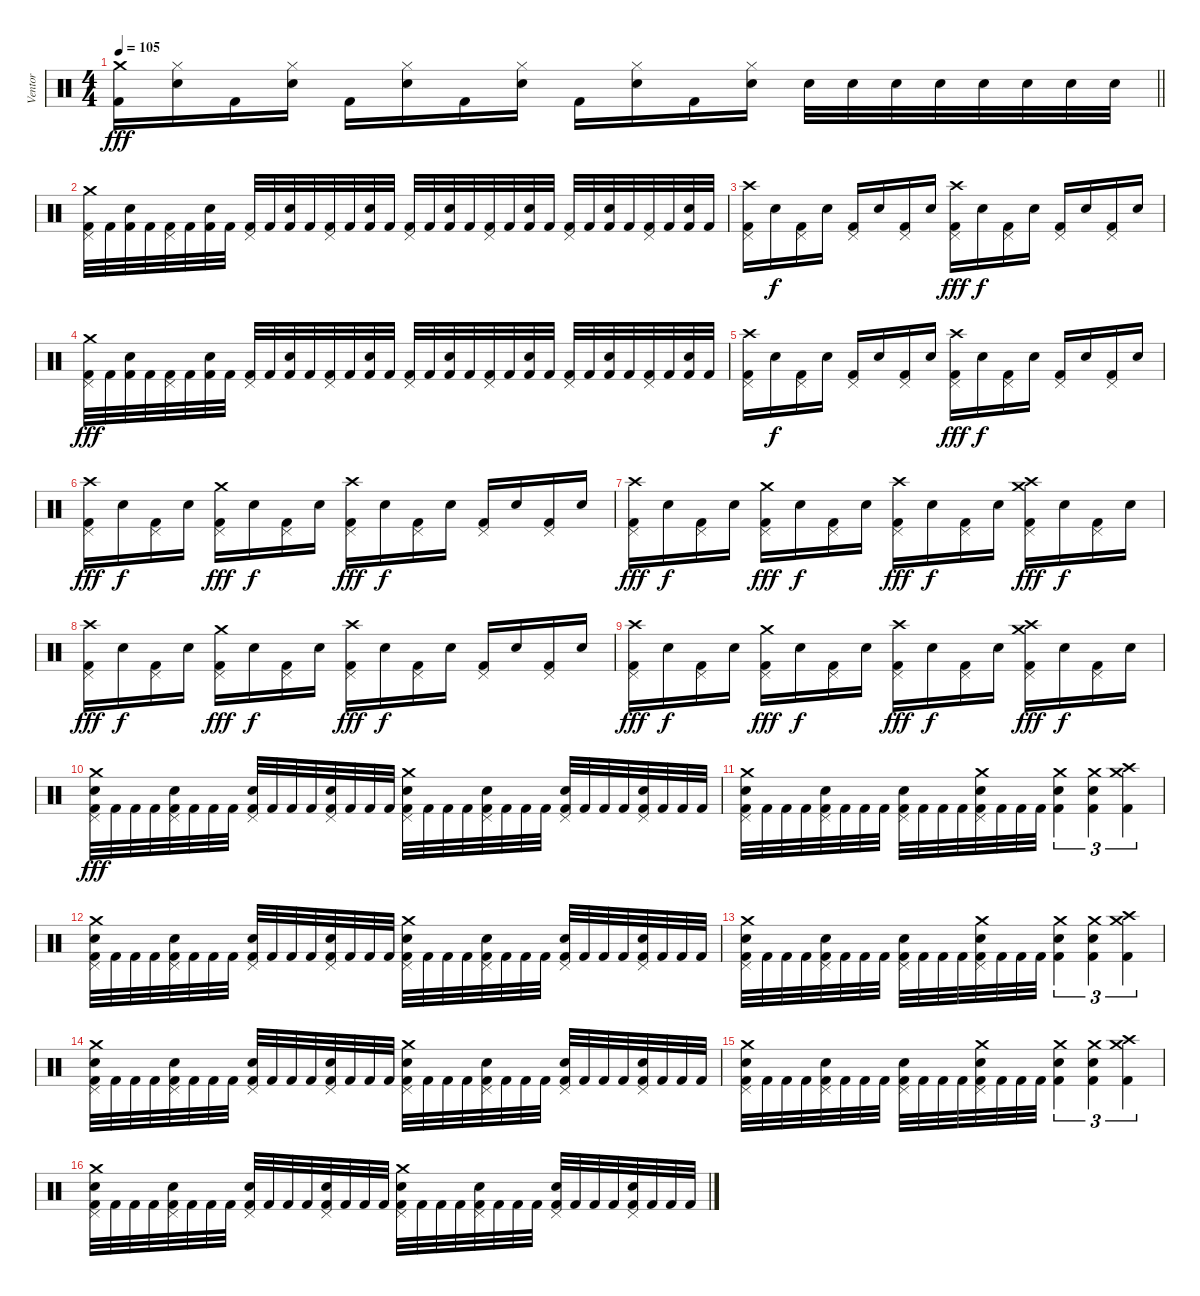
\track ("Ventor" "Ventor") {instrument percussion}
\staff {score}
\articulation defaults
\ts (4 4)
\tempo 105
\clef neutral
\barLineRight lightlight
\ks c
("Crash medium (hit)" "Kick (hit) 2").16{dy fff} ("Hi-Hat (closed)" "Electric Snare (hit)").16 "Kick (hit) 2".16 ("Hi-Hat (closed)" "Electric Snare (hit)").16 "Kick (hit) 2".16 ("Hi-Hat (closed)" "Electric Snare (hit)").16 "Kick (hit) 2".16 ("Hi-Hat (closed)" "Electric Snare (hit)").16 "Kick (hit) 2".16 ("Hi-Hat (closed)" "Electric Snare (hit)").16 "Kick (hit) 2".16 ("Hi-Hat (closed)" "Electric Snare (hit)").16 "Electric Snare (hit)".32 "Electric Snare (hit)".32 "Electric Snare (hit)".32 "Electric Snare (hit)".32 "Electric Snare (hit)".32 "Electric Snare (hit)".32 "Electric Snare (hit)".32 "Electric Snare (hit)".32 |
("Crash medium (hit)" "Pedal Hi-Hat (hit)" "Kick (hit) 2").32 "Kick (hit) 2".32 ("Electric Snare (hit)" "Kick (hit) 2").32 "Kick (hit) 2".32 ("Pedal Hi-Hat (hit)" "Kick (hit) 2").32 "Kick (hit) 2".32 ("Electric Snare (hit)" "Kick (hit) 2").32 "Kick (hit) 2".32 ("Pedal Hi-Hat (hit)" "Kick (hit) 2").32 "Kick (hit) 2".32 ("Electric Snare (hit)" "Kick (hit) 2").32 "Kick (hit) 2".32 ("Pedal Hi-Hat (hit)" "Kick (hit) 2").32 "Kick (hit) 2".32 ("Electric Snare (hit)" "Kick (hit) 2").32 "Kick (hit) 2".32 ("Pedal Hi-Hat (hit)" "Kick (hit) 2").32 "Kick (hit) 2".32 ("Electric Snare (hit)" "Kick (hit) 2").32 "Kick (hit) 2".32 ("Pedal Hi-Hat (hit)" "Kick (hit) 2").32 "Kick (hit) 2".32 ("Electric Snare (hit)" "Kick (hit) 2").32 "Kick (hit) 2".32 ("Pedal Hi-Hat (hit)" "Kick (hit) 2").32 "Kick (hit) 2".32 ("Electric Snare (hit)" "Kick (hit) 2").32 "Kick (hit) 2".32 ("Pedal Hi-Hat (hit)" "Kick (hit) 2").32 "Kick (hit) 2".32 ("Electric Snare (hit)" "Kick (hit) 2").32 "Kick (hit) 2".32 |
("Crash high (hit)" "Pedal Hi-Hat (hit)" "Kick (hit) 2").16 "Electric Snare (hit)".16{dy f} ("Pedal Hi-Hat (hit)" "Kick (hit) 2").16 "Electric Snare (hit)".16 ("Pedal Hi-Hat (hit)" "Kick (hit) 2").16 "Electric Snare (hit)".16 ("Pedal Hi-Hat (hit)" "Kick (hit) 2").16 "Electric Snare (hit)".16 ("Crash high (hit)" "Pedal Hi-Hat (hit)" "Kick (hit) 2").16{dy fff} "Electric Snare (hit)".16{dy f} ("Pedal Hi-Hat (hit)" "Kick (hit) 2").16 "Electric Snare (hit)".16 ("Pedal Hi-Hat (hit)" "Kick (hit) 2").16 "Electric Snare (hit)".16 ("Pedal Hi-Hat (hit)" "Kick (hit) 2").16 "Electric Snare (hit)".16 |
("Crash medium (hit)" "Pedal Hi-Hat (hit)" "Kick (hit) 2").32{dy fff} "Kick (hit) 2".32 ("Electric Snare (hit)" "Kick (hit) 2").32 "Kick (hit) 2".32 ("Pedal Hi-Hat (hit)" "Kick (hit) 2").32 "Kick (hit) 2".32 ("Electric Snare (hit)" "Kick (hit) 2").32 "Kick (hit) 2".32 ("Pedal Hi-Hat (hit)" "Kick (hit) 2").32 "Kick (hit) 2".32 ("Electric Snare (hit)" "Kick (hit) 2").32 "Kick (hit) 2".32 ("Pedal Hi-Hat (hit)" "Kick (hit) 2").32 "Kick (hit) 2".32 ("Electric Snare (hit)" "Kick (hit) 2").32 "Kick (hit) 2".32 ("Pedal Hi-Hat (hit)" "Kick (hit) 2").32 "Kick (hit) 2".32 ("Electric Snare (hit)" "Kick (hit) 2").32 "Kick (hit) 2".32 ("Pedal Hi-Hat (hit)" "Kick (hit) 2").32 "Kick (hit) 2".32 ("Electric Snare (hit)" "Kick (hit) 2").32 "Kick (hit) 2".32 ("Pedal Hi-Hat (hit)" "Kick (hit) 2").32 "Kick (hit) 2".32 ("Electric Snare (hit)" "Kick (hit) 2").32 "Kick (hit) 2".32 ("Pedal Hi-Hat (hit)" "Kick (hit) 2").32 "Kick (hit) 2".32 ("Electric Snare (hit)" "Kick (hit) 2").32 "Kick (hit) 2".32 |
("Crash high (hit)" "Pedal Hi-Hat (hit)" "Kick (hit) 2").16 "Electric Snare (hit)".16{dy f} ("Pedal Hi-Hat (hit)" "Kick (hit) 2").16 "Electric Snare (hit)".16 ("Pedal Hi-Hat (hit)" "Kick (hit) 2").16 "Electric Snare (hit)".16 ("Pedal Hi-Hat (hit)" "Kick (hit) 2").16 "Electric Snare (hit)".16 ("Crash high (hit)" "Pedal Hi-Hat (hit)" "Kick (hit) 2").16{dy fff} "Electric Snare (hit)".16{dy f} ("Pedal Hi-Hat (hit)" "Kick (hit) 2").16 "Electric Snare (hit)".16 ("Pedal Hi-Hat (hit)" "Kick (hit) 2").16 "Electric Snare (hit)".16 ("Pedal Hi-Hat (hit)" "Kick (hit) 2").16 "Electric Snare (hit)".16 |
("Crash high (hit)" "Pedal Hi-Hat (hit)" "Kick (hit) 2").16{dy fff} "Electric Snare (hit)".16{dy f} ("Pedal Hi-Hat (hit)" "Kick (hit) 2").16 "Electric Snare (hit)".16 ("Crash medium (hit)" "Pedal Hi-Hat (hit)" "Kick (hit) 2").16{dy fff} "Electric Snare (hit)".16{dy f} ("Pedal Hi-Hat (hit)" "Kick (hit) 2").16 "Electric Snare (hit)".16 ("Crash high (hit)" "Pedal Hi-Hat (hit)" "Kick (hit) 2").16{dy fff} "Electric Snare (hit)".16{dy f} ("Pedal Hi-Hat (hit)" "Kick (hit) 2").16 "Electric Snare (hit)".16 ("Pedal Hi-Hat (hit)" "Kick (hit) 2").16 "Electric Snare (hit)".16 ("Pedal Hi-Hat (hit)" "Kick (hit) 2").16 "Electric Snare (hit)".16 |
("Crash high (hit)" "Pedal Hi-Hat (hit)" "Kick (hit) 2").16{dy fff} "Electric Snare (hit)".16{dy f} ("Pedal Hi-Hat (hit)" "Kick (hit) 2").16 "Electric Snare (hit)".16 ("Crash medium (hit)" "Pedal Hi-Hat (hit)" "Kick (hit) 2").16{dy fff} "Electric Snare (hit)".16{dy f} ("Pedal Hi-Hat (hit)" "Kick (hit) 2").16 "Electric Snare (hit)".16 ("Crash high (hit)" "Pedal Hi-Hat (hit)" "Kick (hit) 2").16{dy fff} "Electric Snare (hit)".16{dy f} ("Pedal Hi-Hat (hit)" "Kick (hit) 2").16 "Electric Snare (hit)".16 ("Crash medium (hit)" "Crash high (hit)" "Pedal Hi-Hat (hit)" "Kick (hit) 2").16{dy fff} "Electric Snare (hit)".16{dy f} ("Pedal Hi-Hat (hit)" "Kick (hit) 2").16 "Electric Snare (hit)".16 |
("Crash high (hit)" "Pedal Hi-Hat (hit)" "Kick (hit) 2").16{dy fff} "Electric Snare (hit)".16{dy f} ("Pedal Hi-Hat (hit)" "Kick (hit) 2").16 "Electric Snare (hit)".16 ("Crash medium (hit)" "Pedal Hi-Hat (hit)" "Kick (hit) 2").16{dy fff} "Electric Snare (hit)".16{dy f} ("Pedal Hi-Hat (hit)" "Kick (hit) 2").16 "Electric Snare (hit)".16 ("Crash high (hit)" "Pedal Hi-Hat (hit)" "Kick (hit) 2").16{dy fff} "Electric Snare (hit)".16{dy f} ("Pedal Hi-Hat (hit)" "Kick (hit) 2").16 "Electric Snare (hit)".16 ("Pedal Hi-Hat (hit)" "Kick (hit) 2").16 "Electric Snare (hit)".16 ("Pedal Hi-Hat (hit)" "Kick (hit) 2").16 "Electric Snare (hit)".16 |
("Crash high (hit)" "Pedal Hi-Hat (hit)" "Kick (hit) 2").16{dy fff} "Electric Snare (hit)".16{dy f} ("Pedal Hi-Hat (hit)" "Kick (hit) 2").16 "Electric Snare (hit)".16 ("Crash medium (hit)" "Pedal Hi-Hat (hit)" "Kick (hit) 2").16{dy fff} "Electric Snare (hit)".16{dy f} ("Pedal Hi-Hat (hit)" "Kick (hit) 2").16 "Electric Snare (hit)".16 ("Crash high (hit)" "Pedal Hi-Hat (hit)" "Kick (hit) 2").16{dy fff} "Electric Snare (hit)".16{dy f} ("Pedal Hi-Hat (hit)" "Kick (hit) 2").16 "Electric Snare (hit)".16 ("Crash medium (hit)" "Crash high (hit)" "Pedal Hi-Hat (hit)" "Kick (hit) 2").16{dy fff} "Electric Snare (hit)".16{dy f} ("Pedal Hi-Hat (hit)" "Kick (hit) 2").16 "Electric Snare (hit)".16 |
("Crash medium (hit)" "Pedal Hi-Hat (hit)" "Electric Snare (hit)" "Kick (hit) 2").32{dy fff} "Kick (hit) 2".32 "Kick (hit) 2".32 "Kick (hit) 2".32 ("Pedal Hi-Hat (hit)" "Electric Snare (hit)" "Kick (hit) 2").32 "Kick (hit) 2".32 "Kick (hit) 2".32 "Kick (hit) 2".32 ("Pedal Hi-Hat (hit)" "Electric Snare (hit)" "Kick (hit) 2").32 "Kick (hit) 2".32 "Kick (hit) 2".32 "Kick (hit) 2".32 ("Pedal Hi-Hat (hit)" "Electric Snare (hit)" "Kick (hit) 2").32 "Kick (hit) 2".32 "Kick (hit) 2".32 "Kick (hit) 2".32 ("Crash medium (hit)" "Pedal Hi-Hat (hit)" "Electric Snare (hit)" "Kick (hit) 2").32 "Kick (hit) 2".32 "Kick (hit) 2".32 "Kick (hit) 2".32 ("Pedal Hi-Hat (hit)" "Electric Snare (hit)" "Kick (hit) 2").32 "Kick (hit) 2".32 "Kick (hit) 2".32 "Kick (hit) 2".32 ("Pedal Hi-Hat (hit)" "Electric Snare (hit)" "Kick (hit) 2").32 "Kick (hit) 2".32 "Kick (hit) 2".32 "Kick (hit) 2".32 ("Pedal Hi-Hat (hit)" "Electric Snare (hit)" "Kick (hit) 2").32 "Kick (hit) 2".32 "Kick (hit) 2".32 "Kick (hit) 2".32 |
("Crash medium (hit)" "Pedal Hi-Hat (hit)" "Electric Snare (hit)" "Kick (hit) 2").32 "Kick (hit) 2".32 "Kick (hit) 2".32 "Kick (hit) 2".32 ("Pedal Hi-Hat (hit)" "Electric Snare (hit)" "Kick (hit) 2").32 "Kick (hit) 2".32 "Kick (hit) 2".32 "Kick (hit) 2".32 ("Pedal Hi-Hat (hit)" "Electric Snare (hit)" "Kick (hit) 2").32 "Kick (hit) 2".32 "Kick (hit) 2".32 "Kick (hit) 2".32 ("Crash medium (hit)" "Pedal Hi-Hat (hit)" "Electric Snare (hit)" "Kick (hit) 2").32 "Kick (hit) 2".32 "Kick (hit) 2".32 "Kick (hit) 2".32 ("Crash medium (hit)" "Electric Snare (hit)" "Kick (hit) 2").4{tu (3 2)} ("Crash medium (hit)" "Electric Snare (hit)" "Kick (hit) 2").4{tu (3 2)} ("Crash high (hit)" "Crash medium (hit)" "Kick (hit) 2").4{tu (3 2)} |
("Crash medium (hit)" "Pedal Hi-Hat (hit)" "Electric Snare (hit)" "Kick (hit) 2").32 "Kick (hit) 2".32 "Kick (hit) 2".32 "Kick (hit) 2".32 ("Pedal Hi-Hat (hit)" "Electric Snare (hit)" "Kick (hit) 2").32 "Kick (hit) 2".32 "Kick (hit) 2".32 "Kick (hit) 2".32 ("Pedal Hi-Hat (hit)" "Electric Snare (hit)" "Kick (hit) 2").32 "Kick (hit) 2".32 "Kick (hit) 2".32 "Kick (hit) 2".32 ("Pedal Hi-Hat (hit)" "Electric Snare (hit)" "Kick (hit) 2").32 "Kick (hit) 2".32 "Kick (hit) 2".32 "Kick (hit) 2".32 ("Crash medium (hit)" "Pedal Hi-Hat (hit)" "Electric Snare (hit)" "Kick (hit) 2").32 "Kick (hit) 2".32 "Kick (hit) 2".32 "Kick (hit) 2".32 ("Pedal Hi-Hat (hit)" "Electric Snare (hit)" "Kick (hit) 2").32 "Kick (hit) 2".32 "Kick (hit) 2".32 "Kick (hit) 2".32 ("Pedal Hi-Hat (hit)" "Electric Snare (hit)" "Kick (hit) 2").32 "Kick (hit) 2".32 "Kick (hit) 2".32 "Kick (hit) 2".32 ("Pedal Hi-Hat (hit)" "Electric Snare (hit)" "Kick (hit) 2").32 "Kick (hit) 2".32 "Kick (hit) 2".32 "Kick (hit) 2".32 |
("Crash medium (hit)" "Pedal Hi-Hat (hit)" "Electric Snare (hit)" "Kick (hit) 2").32 "Kick (hit) 2".32 "Kick (hit) 2".32 "Kick (hit) 2".32 ("Pedal Hi-Hat (hit)" "Electric Snare (hit)" "Kick (hit) 2").32 "Kick (hit) 2".32 "Kick (hit) 2".32 "Kick (hit) 2".32 ("Pedal Hi-Hat (hit)" "Electric Snare (hit)" "Kick (hit) 2").32 "Kick (hit) 2".32 "Kick (hit) 2".32 "Kick (hit) 2".32 ("Crash medium (hit)" "Pedal Hi-Hat (hit)" "Electric Snare (hit)" "Kick (hit) 2").32 "Kick (hit) 2".32 "Kick (hit) 2".32 "Kick (hit) 2".32 ("Crash medium (hit)" "Electric Snare (hit)" "Kick (hit) 2").4{tu (3 2)} ("Crash medium (hit)" "Electric Snare (hit)" "Kick (hit) 2").4{tu (3 2)} ("Crash high (hit)" "Crash medium (hit)" "Kick (hit) 2").4{tu (3 2)} |
("Crash medium (hit)" "Pedal Hi-Hat (hit)" "Electric Snare (hit)" "Kick (hit) 2").32 "Kick (hit) 2".32 "Kick (hit) 2".32 "Kick (hit) 2".32 ("Pedal Hi-Hat (hit)" "Electric Snare (hit)" "Kick (hit) 2").32 "Kick (hit) 2".32 "Kick (hit) 2".32 "Kick (hit) 2".32 ("Pedal Hi-Hat (hit)" "Electric Snare (hit)" "Kick (hit) 2").32 "Kick (hit) 2".32 "Kick (hit) 2".32 "Kick (hit) 2".32 ("Pedal Hi-Hat (hit)" "Electric Snare (hit)" "Kick (hit) 2").32 "Kick (hit) 2".32 "Kick (hit) 2".32 "Kick (hit) 2".32 ("Crash medium (hit)" "Pedal Hi-Hat (hit)" "Electric Snare (hit)" "Kick (hit) 2").32 "Kick (hit) 2".32 "Kick (hit) 2".32 "Kick (hit) 2".32 ("Pedal Hi-Hat (hit)" "Electric Snare (hit)" "Kick (hit) 2").32 "Kick (hit) 2".32 "Kick (hit) 2".32 "Kick (hit) 2".32 ("Pedal Hi-Hat (hit)" "Electric Snare (hit)" "Kick (hit) 2").32 "Kick (hit) 2".32 "Kick (hit) 2".32 "Kick (hit) 2".32 ("Pedal Hi-Hat (hit)" "Electric Snare (hit)" "Kick (hit) 2").32 "Kick (hit) 2".32 "Kick (hit) 2".32 "Kick (hit) 2".32 |
("Crash medium (hit)" "Pedal Hi-Hat (hit)" "Electric Snare (hit)" "Kick (hit) 2").32 "Kick (hit) 2".32 "Kick (hit) 2".32 "Kick (hit) 2".32 ("Pedal Hi-Hat (hit)" "Electric Snare (hit)" "Kick (hit) 2").32 "Kick (hit) 2".32 "Kick (hit) 2".32 "Kick (hit) 2".32 ("Pedal Hi-Hat (hit)" "Electric Snare (hit)" "Kick (hit) 2").32 "Kick (hit) 2".32 "Kick (hit) 2".32 "Kick (hit) 2".32 ("Crash medium (hit)" "Pedal Hi-Hat (hit)" "Electric Snare (hit)" "Kick (hit) 2").32 "Kick (hit) 2".32 "Kick (hit) 2".32 "Kick (hit) 2".32 ("Crash medium (hit)" "Electric Snare (hit)" "Kick (hit) 2").4{tu (3 2)} ("Crash medium (hit)" "Electric Snare (hit)" "Kick (hit) 2").4{tu (3 2)} ("Crash high (hit)" "Crash medium (hit)" "Kick (hit) 2").4{tu (3 2)} |
("Crash medium (hit)" "Pedal Hi-Hat (hit)" "Electric Snare (hit)" "Kick (hit) 2").32 "Kick (hit) 2".32 "Kick (hit) 2".32 "Kick (hit) 2".32 ("Pedal Hi-Hat (hit)" "Electric Snare (hit)" "Kick (hit) 2").32 "Kick (hit) 2".32 "Kick (hit) 2".32 "Kick (hit) 2".32 ("Pedal Hi-Hat (hit)" "Electric Snare (hit)" "Kick (hit) 2").32 "Kick (hit) 2".32 "Kick (hit) 2".32 "Kick (hit) 2".32 ("Pedal Hi-Hat (hit)" "Electric Snare (hit)" "Kick (hit) 2").32 "Kick (hit) 2".32 "Kick (hit) 2".32 "Kick (hit) 2".32 ("Crash medium (hit)" "Pedal Hi-Hat (hit)" "Electric Snare (hit)" "Kick (hit) 2").32 "Kick (hit) 2".32 "Kick (hit) 2".32 "Kick (hit) 2".32 ("Pedal Hi-Hat (hit)" "Electric Snare (hit)" "Kick (hit) 2").32 "Kick (hit) 2".32 "Kick (hit) 2".32 "Kick (hit) 2".32 ("Pedal Hi-Hat (hit)" "Electric Snare (hit)" "Kick (hit) 2").32 "Kick (hit) 2".32 "Kick (hit) 2".32 "Kick (hit) 2".32 ("Pedal Hi-Hat (hit)" "Electric Snare (hit)" "Kick (hit) 2").32 "Kick (hit) 2".32 "Kick (hit) 2".32 "Kick (hit) 2".32
